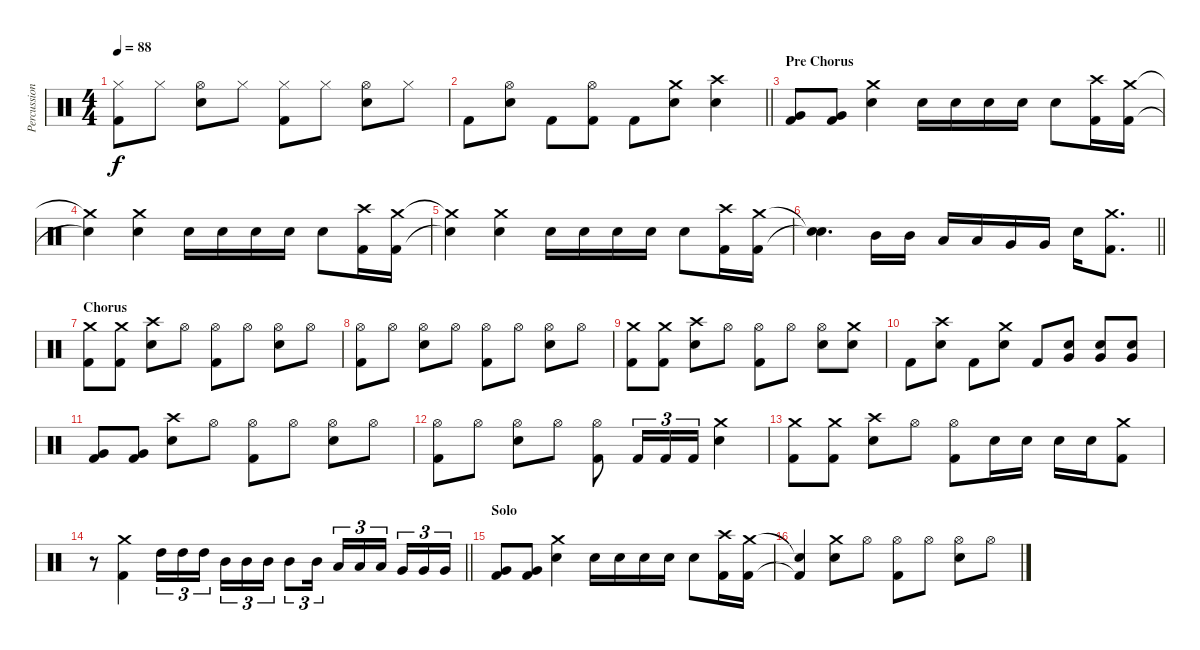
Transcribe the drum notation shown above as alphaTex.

\track ("Percussions" "Percussion") {instrument percussion}
\staff {score}
\articulation defaults
\ts (4 4)
\tempo 88
\clef neutral
\ks c
("Hi-Hat (closed)" "Kick (hit) 2").8{dy f} "Hi-Hat (closed)".8 ("Hi-Hat (open)" "Snare (hit) 2").8 "Hi-Hat (closed)".8 ("Hi-Hat (closed)" "Kick (hit) 2").8 "Hi-Hat (closed)".8 ("Hi-Hat (open)" "Snare (hit) 2").8 "Hi-Hat (closed)".8 |
\barLineRight lightlight "Kick (hit) 2".8
("Hi-Hat (open)" "Snare (hit) 2").8 "Kick (hit) 2".8 ("Hi-Hat (open)" "Kick (hit) 2").8 "Kick (hit) 2".8 ("Crash medium (hit)" "Snare (hit) 2").8 ("Crash high (hit)" "Snare (hit) 2").4 |
\section ("" "Pre Chorus")
("Very Low Tom (hit)" "Kick (hit) 2").8 ("Very Low Tom (hit)" "Kick (hit) 2").8 ("Crash medium (hit)" "Snare (hit) 2").4 "Snare (hit) 2".16 "Snare (hit) 2".16 "Snare (hit) 2".16 "Snare (hit) 2".16 "Snare (hit) 2".8 ("Crash high (hit)" "Kick (hit) 2").16 ("Crash medium (hit)" "Kick (hit) 2").16 |
("Crash medium (hit)"{t} "Snare (hit)"{t}).4 ("Crash medium (hit)" "Snare (hit) 2").4 "Snare (hit) 2".16 "Snare (hit) 2".16 "Snare (hit) 2".16 "Snare (hit) 2".16 "Snare (hit) 2".8 ("Crash high (hit)" "Kick (hit) 2").16 ("Crash medium (hit)" "Kick (hit) 2").16 |
("Crash medium (hit)"{t} "Snare (hit)"{t}).4 ("Crash medium (hit)" "Snare (hit) 2").4 "Snare (hit) 2".16 "Snare (hit) 2".16 "Snare (hit) 2".16 "Snare (hit) 2".16 "Snare (hit) 2".8 ("Crash high (hit)" "Kick (hit) 2").16 ("Crash medium (hit)" "Kick (hit) 2").16 |
\barLineRight lightlight
("Snare (hit)"{t} "Snare (hit)"{t}).4{d} "Mid Tom (hit)".16 "Mid Tom (hit)".16 "Low Tom (hit)".16 "Low Tom (hit)".16 "Very Low Tom (hit)".16 "Very Low Tom (hit)".16 "Snare (hit) 2".16 ("Crash medium (hit)" "Kick (hit) 2").8{d} |
\section ("" "Chorus")
("Crash medium (hit)" "Kick (hit) 2").8 ("Crash medium (hit)" "Kick (hit) 2").8 ("Crash high (hit)" "Snare (hit) 2").8 "Hi-Hat (open)".8 ("Hi-Hat (open)" "Kick (hit) 2").8 "Hi-Hat (open)".8 ("Hi-Hat (open)" "Snare (hit) 2").8 "Hi-Hat (open)".8 |
("Hi-Hat (open)" "Kick (hit) 2").8 "Hi-Hat (open)".8 ("Hi-Hat (open)" "Snare (hit) 2").8 "Hi-Hat (open)".8 ("Hi-Hat (open)" "Kick (hit) 2").8 "Hi-Hat (open)".8 ("Hi-Hat (open)" "Snare (hit) 2").8 "Hi-Hat (open)".8 |
("Crash medium (hit)" "Kick (hit) 2").8 ("Crash medium (hit)" "Kick (hit) 2").8 ("Crash high (hit)" "Snare (hit) 2").8 "Hi-Hat (open)".8 ("Hi-Hat (open)" "Kick (hit) 2").8 "Hi-Hat (open)".8 ("Hi-Hat (open)" "Snare (hit) 2").8 ("Crash medium (hit)" "Snare (hit) 2").8 |
"Kick (hit) 2".8 ("Crash high (hit)" "Snare (hit) 2").8 "Kick (hit) 2".8 ("Crash medium (hit)" "Snare (hit) 2").8 "Kick (hit) 2".8 ("Snare (hit) 2" "Very Low Tom (hit)").8 ("Snare (hit) 2" "Very Low Tom (hit)").8 ("Snare (hit) 2" "Very Low Tom (hit)").8 |
("Very Low Tom (hit)" "Kick (hit) 2").8 ("Very Low Tom (hit)" "Kick (hit) 2").8 ("Crash high (hit)" "Snare (hit) 2").8 "Hi-Hat (open)".8 ("Hi-Hat (open)" "Kick (hit) 2").8 "Hi-Hat (open)".8 ("Hi-Hat (open)" "Snare (hit) 2").8 "Hi-Hat (open)".8 |
("Hi-Hat (open)" "Kick (hit) 2").8 "Hi-Hat (open)".8 ("Hi-Hat (open)" "Snare (hit) 2").8 "Hi-Hat (open)".8 ("Hi-Hat (open)" "Kick (hit) 2").8 "Kick (hit) 2".16{tu (3 2)} "Kick (hit) 2".16{tu (3 2)} "Kick (hit) 2".16{tu (3 2)} ("Crash medium (hit)" "Snare (hit) 2").4 |
("Crash medium (hit)" "Kick (hit) 2").8 ("Crash medium (hit)" "Kick (hit) 2").8 ("Crash high (hit)" "Snare (hit) 2").8 "Hi-Hat (open)".8 ("Hi-Hat (open)" "Kick (hit) 2").8 "Snare (hit) 2".16 "Snare (hit) 2".16 "Snare (hit) 2".16 "Snare (hit) 2".16 ("Crash medium (hit)" "Kick (hit) 2").8 |
\barLineRight lightlight
r.8 ("Crash medium (hit)" "Kick (hit) 2").4 "High Tom (hit)".16{tu (3 2)} "High Tom (hit)".16{tu (3 2)} "High Tom (hit)".16{tu (3 2)} "Mid Tom (hit)".16{tu (3 2)} "Mid Tom (hit)".16{tu (3 2)} "Mid Tom (hit)".16{tu (3 2)} "Mid Tom (hit)".8{tu (3 2)} "Mid Tom (hit)".16{tu (3 2)} "Low Tom (hit)".16{tu (3 2)} "Low Tom (hit)".16{tu (3 2)} "Low Tom (hit)".16{tu (3 2) beam splitsecondary} "Very Low Tom (hit)".16{tu (3 2)} "Very Low Tom (hit)".16{tu (3 2)} "Very Low Tom (hit)".16{tu (3 2)} |
\section ("" "Solo")
("Very Low Tom (hit)" "Kick (hit) 2").8 ("Very Low Tom (hit)" "Kick (hit) 2").8 ("Crash medium (hit)" "Snare (hit) 2").4 "Snare (hit) 2".16 "Snare (hit) 2".16 "Snare (hit) 2".16 "Snare (hit) 2".16 "Snare (hit) 2".8 ("Crash high (hit)" "Kick (hit) 2").16 ("Crash medium (hit)" "Kick (hit) 2").16 |
("Snare (hit)"{t} "Kick (hit) 2"{t}).4 ("Crash medium (hit)" "Snare (hit) 2").8 "Hi-Hat (open)".8 ("Hi-Hat (open)" "Kick (hit) 2").8 "Hi-Hat (open)".8 ("Hi-Hat (open)" "Snare (hit) 2").8 "Hi-Hat (open)".8
